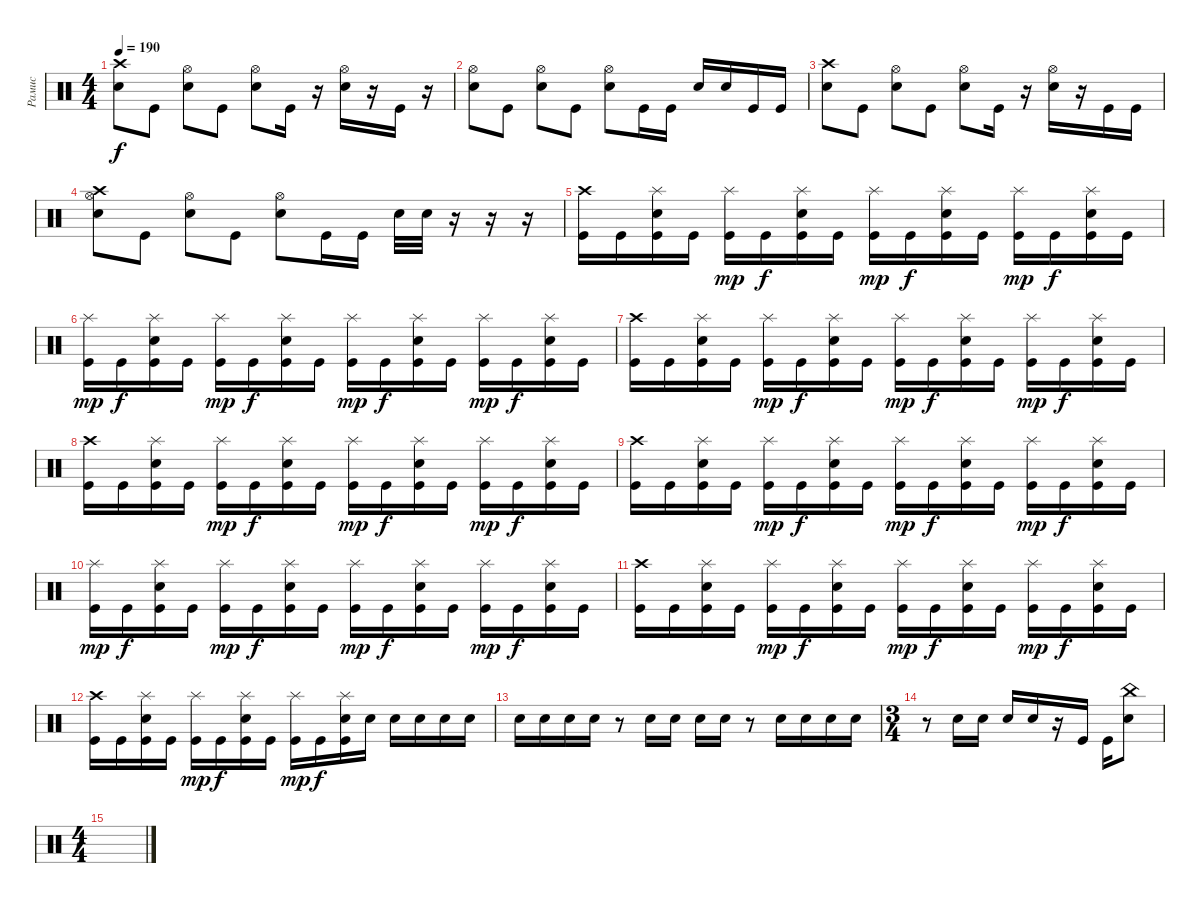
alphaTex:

\track ("Рамис" "Рамис") {instrument percussion}
\staff {score}
\articulation defaults
\ts (4 4)
\tempo 190
\clef neutral
\ks c
("Crash high (hit)" "Electric Snare (hit)").8{dy f} "Kick (hit)".8 ("Hi-Hat (open)" "Electric Snare (hit)").8 "Kick (hit)".8 ("Hi-Hat (open)" "Electric Snare (hit)").8 "Kick (hit)".16 r.16 ("Hi-Hat (open)" "Electric Snare (hit)").16 r.16 "Kick (hit)".16 r.16 |
("Hi-Hat (open)" "Electric Snare (hit)").8 "Kick (hit)".8 ("Hi-Hat (open)" "Electric Snare (hit)").8 "Kick (hit)".8 ("Hi-Hat (open)" "Electric Snare (hit)").8 "Kick (hit)".16 "Kick (hit)".16 "Electric Snare (hit)".16 "Electric Snare (hit)".16 "Kick (hit)".16 "Kick (hit)".16 |
("Crash high (hit)" "Electric Snare (hit)").8 "Kick (hit)".8 ("Hi-Hat (open)" "Electric Snare (hit)").8 "Kick (hit)".8 ("Hi-Hat (open)" "Electric Snare (hit)").8 "Kick (hit)".16 r.16 ("Hi-Hat (open)" "Electric Snare (hit)").16 r.16 "Kick (hit)".16 "Kick (hit)".16 |
("Crash high (hit)" "Hi-Hat (open)" "Electric Snare (hit)").8 "Kick (hit)".8 ("Hi-Hat (open)" "Electric Snare (hit)").8 "Kick (hit)".8 ("Hi-Hat (open)" "Electric Snare (hit)").8 "Kick (hit)".16 "Kick (hit)".16 "Electric Snare (hit)".32 "Electric Snare (hit)".32 r.16 r.16 r.16 |
("Crash high (hit)" "Kick (hit)").16 "Kick (hit)".16 ("Splash (hit)" "Electric Snare (hit)" "Kick (hit)").16 "Kick (hit)".16 ("Splash (hit)" "Kick (hit)").16{dy mp} "Kick (hit)".16{dy f} ("Splash (hit)" "Electric Snare (hit)" "Kick (hit)").16 "Kick (hit)".16 ("Splash (hit)" "Kick (hit)").16{dy mp} "Kick (hit)".16{dy f} ("Splash (hit)" "Electric Snare (hit)" "Kick (hit)").16 "Kick (hit)".16 ("Splash (hit)" "Kick (hit)").16{dy mp} "Kick (hit)".16{dy f} ("Splash (hit)" "Electric Snare (hit)" "Kick (hit)").16 "Kick (hit)".16 |
("Splash (hit)" "Kick (hit)").16{dy mp} "Kick (hit)".16{dy f} ("Splash (hit)" "Electric Snare (hit)" "Kick (hit)").16 "Kick (hit)".16 ("Splash (hit)" "Kick (hit)").16{dy mp} "Kick (hit)".16{dy f} ("Splash (hit)" "Electric Snare (hit)" "Kick (hit)").16 "Kick (hit)".16 ("Splash (hit)" "Kick (hit)").16{dy mp} "Kick (hit)".16{dy f} ("Splash (hit)" "Electric Snare (hit)" "Kick (hit)").16 "Kick (hit)".16 ("Splash (hit)" "Kick (hit)").16{dy mp} "Kick (hit)".16{dy f} ("Splash (hit)" "Electric Snare (hit)" "Kick (hit)").16 "Kick (hit)".16 |
("Crash high (hit)" "Kick (hit)").16 "Kick (hit)".16 ("Splash (hit)" "Electric Snare (hit)" "Kick (hit)").16 "Kick (hit)".16 ("Splash (hit)" "Kick (hit)").16{dy mp} "Kick (hit)".16{dy f} ("Splash (hit)" "Electric Snare (hit)" "Kick (hit)").16 "Kick (hit)".16 ("Splash (hit)" "Kick (hit)").16{dy mp} "Kick (hit)".16{dy f} ("Splash (hit)" "Electric Snare (hit)" "Kick (hit)").16 "Kick (hit)".16 ("Splash (hit)" "Kick (hit)").16{dy mp} "Kick (hit)".16{dy f} ("Splash (hit)" "Electric Snare (hit)" "Kick (hit)").16 "Kick (hit)".16 |
("Crash high (hit)" "Kick (hit)").16 "Kick (hit)".16 ("Splash (hit)" "Electric Snare (hit)" "Kick (hit)").16 "Kick (hit)".16 ("Splash (hit)" "Kick (hit)").16{dy mp} "Kick (hit)".16{dy f} ("Splash (hit)" "Electric Snare (hit)" "Kick (hit)").16 "Kick (hit)".16 ("Splash (hit)" "Kick (hit)").16{dy mp} "Kick (hit)".16{dy f} ("Splash (hit)" "Electric Snare (hit)" "Kick (hit)").16 "Kick (hit)".16 ("Splash (hit)" "Kick (hit)").16{dy mp} "Kick (hit)".16{dy f} ("Splash (hit)" "Electric Snare (hit)" "Kick (hit)").16 "Kick (hit)".16 |
("Crash high (hit)" "Kick (hit)").16 "Kick (hit)".16 ("Splash (hit)" "Electric Snare (hit)" "Kick (hit)").16 "Kick (hit)".16 ("Splash (hit)" "Kick (hit)").16{dy mp} "Kick (hit)".16{dy f} ("Splash (hit)" "Electric Snare (hit)" "Kick (hit)").16 "Kick (hit)".16 ("Splash (hit)" "Kick (hit)").16{dy mp} "Kick (hit)".16{dy f} ("Splash (hit)" "Electric Snare (hit)" "Kick (hit)").16 "Kick (hit)".16 ("Splash (hit)" "Kick (hit)").16{dy mp} "Kick (hit)".16{dy f} ("Splash (hit)" "Electric Snare (hit)" "Kick (hit)").16 "Kick (hit)".16 |
("Splash (hit)" "Kick (hit)").16{dy mp} "Kick (hit)".16{dy f} ("Splash (hit)" "Electric Snare (hit)" "Kick (hit)").16 "Kick (hit)".16 ("Splash (hit)" "Kick (hit)").16{dy mp} "Kick (hit)".16{dy f} ("Splash (hit)" "Electric Snare (hit)" "Kick (hit)").16 "Kick (hit)".16 ("Splash (hit)" "Kick (hit)").16{dy mp} "Kick (hit)".16{dy f} ("Splash (hit)" "Electric Snare (hit)" "Kick (hit)").16 "Kick (hit)".16 ("Splash (hit)" "Kick (hit)").16{dy mp} "Kick (hit)".16{dy f} ("Splash (hit)" "Electric Snare (hit)" "Kick (hit)").16 "Kick (hit)".16 |
("Crash high (hit)" "Kick (hit)").16 "Kick (hit)".16 ("Splash (hit)" "Electric Snare (hit)" "Kick (hit)").16 "Kick (hit)".16 ("Splash (hit)" "Kick (hit)").16{dy mp} "Kick (hit)".16{dy f} ("Splash (hit)" "Electric Snare (hit)" "Kick (hit)").16 "Kick (hit)".16 ("Splash (hit)" "Kick (hit)").16{dy mp} "Kick (hit)".16{dy f} ("Splash (hit)" "Electric Snare (hit)" "Kick (hit)").16 "Kick (hit)".16 ("Splash (hit)" "Kick (hit)").16{dy mp} "Kick (hit)".16{dy f} ("Splash (hit)" "Electric Snare (hit)" "Kick (hit)").16 "Kick (hit)".16 |
("Crash high (hit)" "Kick (hit)").16 "Kick (hit)".16 ("Splash (hit)" "Electric Snare (hit)" "Kick (hit)").16 "Kick (hit)".16 ("Splash (hit)" "Kick (hit)").16{dy mp} "Kick (hit)".16{dy f} ("Splash (hit)" "Electric Snare (hit)" "Kick (hit)").16 "Kick (hit)".16 ("Splash (hit)" "Kick (hit)").16{dy mp} "Kick (hit)".16{dy f} ("Splash (hit)" "Electric Snare (hit)" "Kick (hit)").16 "Electric Snare (hit)".16 "Electric Snare (hit)".16 "Electric Snare (hit)".16 "Electric Snare (hit)".16 "Electric Snare (hit)".16 |
"Electric Snare (hit)".16 "Electric Snare (hit)".16 "Electric Snare (hit)".16 "Electric Snare (hit)".16 r.8 "Electric Snare (hit)".16 "Electric Snare (hit)".16 "Electric Snare (hit)".16 "Electric Snare (hit)".16 r.8 "Electric Snare (hit)".16 "Electric Snare (hit)".16 "Electric Snare (hit)".16 "Electric Snare (hit)".16 |
\ts (3 4)
r.8 "Electric Snare (hit)".16 "Electric Snare (hit)".16 "Electric Snare (hit)".16 "Electric Snare (hit)".16 r.16 "Kick (hit)".16 "Kick (hit)".16 ("China (hit)" "Electric Snare (hit)").8 |
\ts (4 4)
